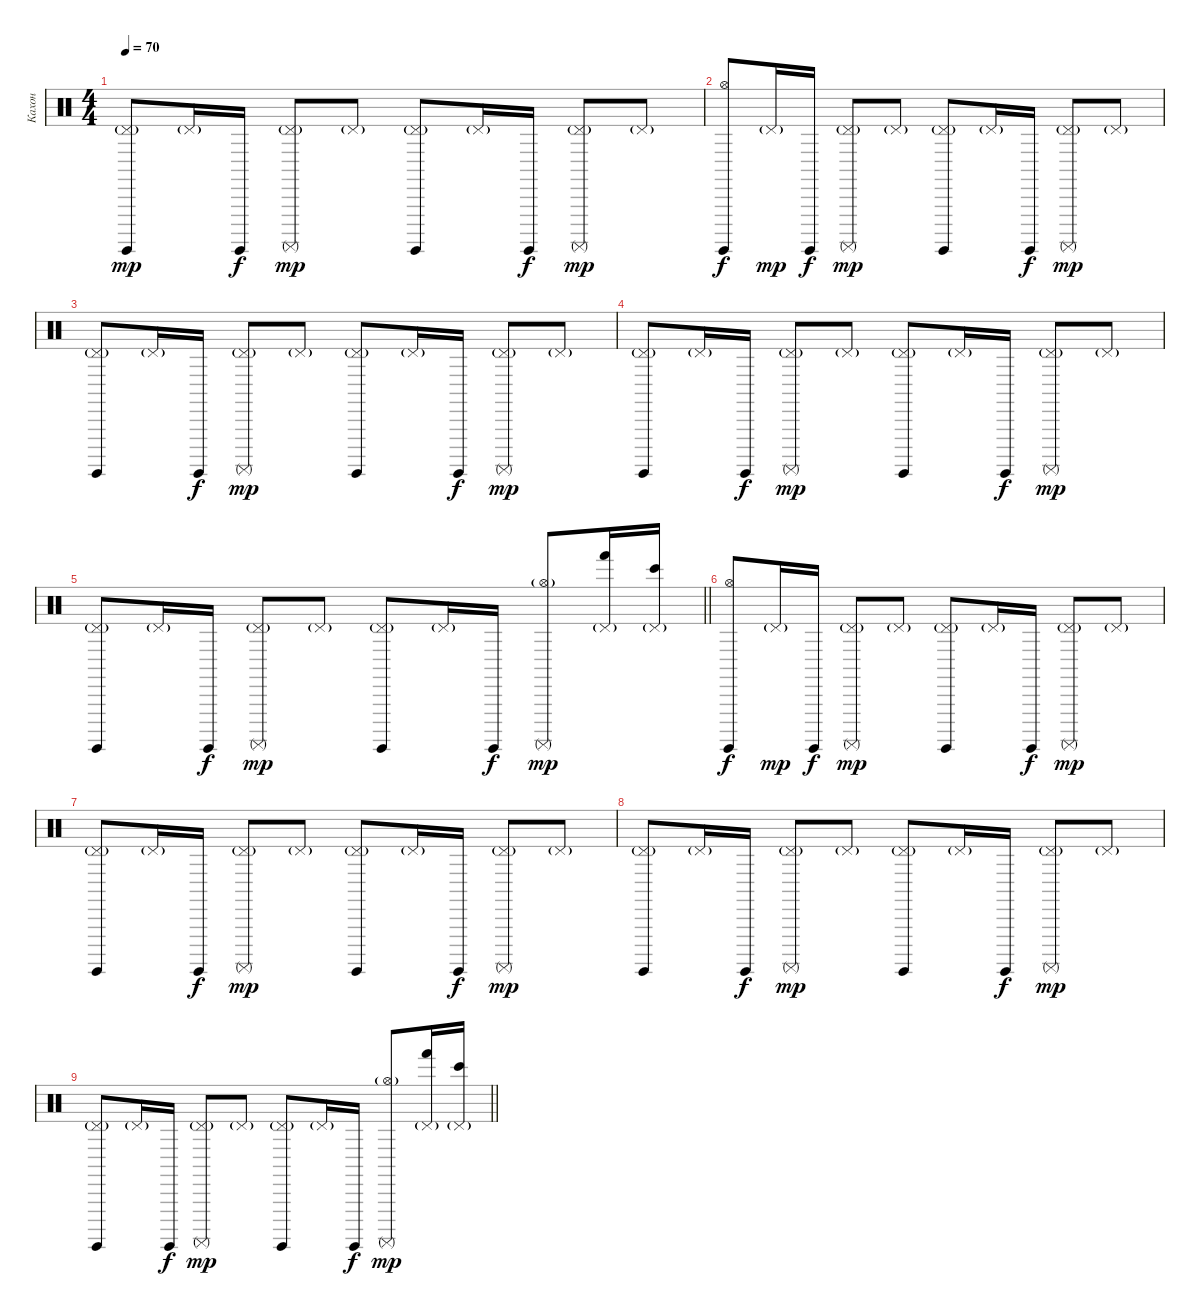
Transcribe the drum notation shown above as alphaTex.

\track ("Кахон" "Кахон") {instrument percussion}
\staff {score}
\articulation defaults
\ts (4 4)
\tempo 70
\clef neutral
\ks c
("Surdo (hit)" "Pedal Hi-Hat (hit)"{g}).8{dy mp} "Pedal Hi-Hat (hit)"{g}.16 "Surdo (hit)".16{dy f} ("Surdo (mute)" "Pedal Hi-Hat (hit)"{g}).8{dy mp} "Pedal Hi-Hat (hit)"{g}.8 ("Surdo (hit)" "Pedal Hi-Hat (hit)"{g}).8 "Pedal Hi-Hat (hit)"{g}.16 "Surdo (hit)".16{dy f} ("Surdo (mute)" "Pedal Hi-Hat (hit)"{g}).8{dy mp} "Pedal Hi-Hat (hit)"{g}.8 |
("Surdo (hit)" "Hi-Hat (open)").8{dy f} "Pedal Hi-Hat (hit)"{g}.16{dy mp} "Surdo (hit)".16{dy f} ("Surdo (mute)" "Pedal Hi-Hat (hit)"{g}).8{dy mp} "Pedal Hi-Hat (hit)"{g}.8 ("Surdo (hit)" "Pedal Hi-Hat (hit)"{g}).8 "Pedal Hi-Hat (hit)"{g}.16 "Surdo (hit)".16{dy f} ("Surdo (mute)" "Pedal Hi-Hat (hit)"{g}).8{dy mp} "Pedal Hi-Hat (hit)"{g}.8 |
("Surdo (hit)" "Pedal Hi-Hat (hit)"{g}).8 "Pedal Hi-Hat (hit)"{g}.16 "Surdo (hit)".16{dy f} ("Surdo (mute)" "Pedal Hi-Hat (hit)"{g}).8{dy mp} "Pedal Hi-Hat (hit)"{g}.8 ("Surdo (hit)" "Pedal Hi-Hat (hit)"{g}).8 "Pedal Hi-Hat (hit)"{g}.16 "Surdo (hit)".16{dy f} ("Surdo (mute)" "Pedal Hi-Hat (hit)"{g}).8{dy mp} "Pedal Hi-Hat (hit)"{g}.8 |
("Surdo (hit)" "Pedal Hi-Hat (hit)"{g}).8 "Pedal Hi-Hat (hit)"{g}.16 "Surdo (hit)".16{dy f} ("Surdo (mute)" "Pedal Hi-Hat (hit)"{g}).8{dy mp} "Pedal Hi-Hat (hit)"{g}.8 ("Surdo (hit)" "Pedal Hi-Hat (hit)"{g}).8 "Pedal Hi-Hat (hit)"{g}.16 "Surdo (hit)".16{dy f} ("Surdo (mute)" "Pedal Hi-Hat (hit)"{g}).8{dy mp} "Pedal Hi-Hat (hit)"{g}.8 |
\barLineRight lightlight
("Surdo (hit)" "Pedal Hi-Hat (hit)"{g}).8 "Pedal Hi-Hat (hit)"{g}.16 "Surdo (hit)".16{dy f} ("Surdo (mute)" "Pedal Hi-Hat (hit)"{g}).8{dy mp} "Pedal Hi-Hat (hit)"{g}.8 ("Surdo (hit)" "Pedal Hi-Hat (hit)"{g}).8 "Pedal Hi-Hat (hit)"{g}.16 "Surdo (hit)".16{dy f} ("Surdo (mute)" "Hi-Hat (open)"{g}).8{dy mp} ("Hand (hit)" "Pedal Hi-Hat (hit)"{g}).16 ("Bongo High (hit)" "Pedal Hi-Hat (hit)"{g}).16 |
("Surdo (hit)" "Hi-Hat (open)").8{dy f} "Pedal Hi-Hat (hit)"{g}.16{dy mp} "Surdo (hit)".16{dy f} ("Surdo (mute)" "Pedal Hi-Hat (hit)"{g}).8{dy mp} "Pedal Hi-Hat (hit)"{g}.8 ("Surdo (hit)" "Pedal Hi-Hat (hit)"{g}).8 "Pedal Hi-Hat (hit)"{g}.16 "Surdo (hit)".16{dy f} ("Surdo (mute)" "Pedal Hi-Hat (hit)"{g}).8{dy mp} "Pedal Hi-Hat (hit)"{g}.8 |
("Surdo (hit)" "Pedal Hi-Hat (hit)"{g}).8 "Pedal Hi-Hat (hit)"{g}.16 "Surdo (hit)".16{dy f} ("Surdo (mute)" "Pedal Hi-Hat (hit)"{g}).8{dy mp} "Pedal Hi-Hat (hit)"{g}.8 ("Surdo (hit)" "Pedal Hi-Hat (hit)"{g}).8 "Pedal Hi-Hat (hit)"{g}.16 "Surdo (hit)".16{dy f} ("Surdo (mute)" "Pedal Hi-Hat (hit)"{g}).8{dy mp} "Pedal Hi-Hat (hit)"{g}.8 |
("Surdo (hit)" "Pedal Hi-Hat (hit)"{g}).8 "Pedal Hi-Hat (hit)"{g}.16 "Surdo (hit)".16{dy f} ("Surdo (mute)" "Pedal Hi-Hat (hit)"{g}).8{dy mp} "Pedal Hi-Hat (hit)"{g}.8 ("Surdo (hit)" "Pedal Hi-Hat (hit)"{g}).8 "Pedal Hi-Hat (hit)"{g}.16 "Surdo (hit)".16{dy f} ("Surdo (mute)" "Pedal Hi-Hat (hit)"{g}).8{dy mp} "Pedal Hi-Hat (hit)"{g}.8 |
\barLineRight lightlight
("Surdo (hit)" "Pedal Hi-Hat (hit)"{g}).8 "Pedal Hi-Hat (hit)"{g}.16 "Surdo (hit)".16{dy f} ("Surdo (mute)" "Pedal Hi-Hat (hit)"{g}).8{dy mp} "Pedal Hi-Hat (hit)"{g}.8 ("Surdo (hit)" "Pedal Hi-Hat (hit)"{g}).8 "Pedal Hi-Hat (hit)"{g}.16 "Surdo (hit)".16{dy f} ("Surdo (mute)" "Hi-Hat (open)"{g}).8{dy mp} ("Hand (hit)" "Pedal Hi-Hat (hit)"{g}).16 ("Bongo High (hit)" "Pedal Hi-Hat (hit)"{g}).16
